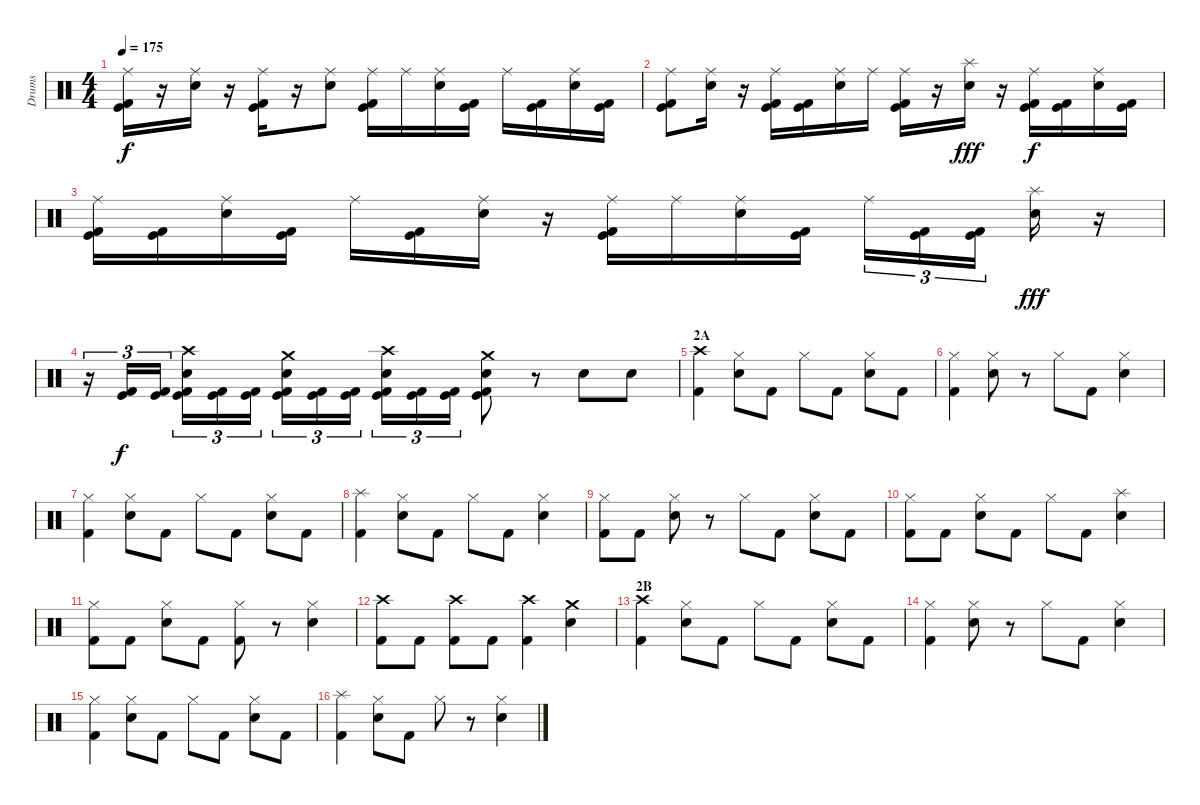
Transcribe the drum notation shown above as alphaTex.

\track ("Drums" "Drums") {instrument percussion}
\staff {score}
\articulation defaults
\ts (4 4)
\tempo 175
\clef neutral
\ks c
("Ride (middle)" "Kick (hit)" "Kick (hit) 2").16{dy f} r.16 ("Ride (middle)" "Electric Snare (hit)").16 r.16 ("Ride (middle)" "Kick (hit)" "Kick (hit) 2").16 r.16 ("Ride (middle)" "Electric Snare (hit)").8 ("Ride (middle)" "Kick (hit)" "Kick (hit) 2").16 "Ride (middle)".16 ("Ride (middle)" "Electric Snare (hit)").16 ("Kick (hit)" "Kick (hit) 2").16 "Ride (middle)".16 ("Kick (hit)" "Kick (hit) 2").16 ("Ride (middle)" "Electric Snare (hit)").16 ("Kick (hit)" "Kick (hit) 2").16 |
("Ride (middle)" "Kick (hit)" "Kick (hit) 2").8 ("Ride (middle)" "Electric Snare (hit)").16 r.16 ("Ride (middle)" "Kick (hit)" "Kick (hit) 2").16 ("Kick (hit)" "Kick (hit) 2").16 ("Ride (middle)" "Electric Snare (hit)").16 "Ride (middle)".16 ("Ride (middle)" "Kick (hit)" "Kick (hit) 2").16 r.16 ("Splash (hit)" "Electric Snare (hit)").16{dy fff} r.16 ("Ride (middle)" "Kick (hit)" "Kick (hit) 2").16{dy f} ("Kick (hit)" "Kick (hit) 2").16 ("Ride (middle)" "Electric Snare (hit)").16 ("Kick (hit)" "Kick (hit) 2").16 |
("Ride (middle)" "Kick (hit)" "Kick (hit) 2").16 ("Kick (hit)" "Kick (hit) 2").16 ("Ride (middle)" "Electric Snare (hit)").16 ("Kick (hit)" "Kick (hit) 2").16 "Ride (middle)".16 ("Kick (hit)" "Kick (hit) 2").16 ("Ride (middle)" "Electric Snare (hit)").16 r.16 ("Ride (middle)" "Kick (hit)" "Kick (hit) 2").16 "Ride (middle)".16 ("Ride (middle)" "Electric Snare (hit)").16 ("Kick (hit)" "Kick (hit) 2").16 "Ride (middle)".16{tu (3 2)} ("Kick (hit)" "Kick (hit) 2").16{tu (3 2)} ("Kick (hit)" "Kick (hit) 2").16{tu (3 2)} ("Splash (hit)" "Electric Snare (hit)").16{dy fff} r.16 |
r.16{tu (3 2)} ("Kick (hit)" "Kick (hit) 2").16{tu (3 2) dy f} ("Kick (hit)" "Kick (hit) 2").16{tu (3 2)} ("Crash high (hit)" "Electric Snare (hit)" "Kick (hit)" "Kick (hit) 2").16{tu (3 2)} ("Kick (hit)" "Kick (hit) 2").16{tu (3 2)} ("Kick (hit)" "Kick (hit) 2").16{tu (3 2)} ("Crash medium (hit)" "Electric Snare (hit)" "Kick (hit)" "Kick (hit) 2").16{tu (3 2)} ("Kick (hit)" "Kick (hit) 2").16{tu (3 2)} ("Kick (hit)" "Kick (hit) 2").16{tu (3 2)} ("Crash high (hit)" "Electric Snare (hit)" "Kick (hit)" "Kick (hit) 2").16{tu (3 2)} ("Kick (hit)" "Kick (hit) 2").16{tu (3 2)} ("Kick (hit)" "Kick (hit) 2").16{tu (3 2)} ("Crash medium (hit)" "Electric Snare (hit)" "Kick (hit)" "Kick (hit) 2").8 r.8 "Electric Snare (hit)".8 "Electric Snare (hit)".8 |
\section ("" "2A")
("Crash high (hit)" "Kick (hit) 2").4{volume 16} ("Hi-Hat (closed)" "Electric Snare (hit)").8 "Kick (hit) 2".8 "Hi-Hat (closed)".8 "Kick (hit) 2".8 ("Hi-Hat (closed)" "Electric Snare (hit)").8 "Kick (hit) 2".8 |
("Hi-Hat (closed)" "Kick (hit) 2").4 ("Hi-Hat (closed)" "Electric Snare (hit)").8 r.8 "Hi-Hat (closed)".8 "Kick (hit) 2".8 ("Hi-Hat (closed)" "Electric Snare (hit)").4 |
("Hi-Hat (closed)" "Kick (hit) 2").4 ("Hi-Hat (closed)" "Electric Snare (hit)").8 "Kick (hit) 2".8 "Hi-Hat (closed)".8 "Kick (hit) 2".8 ("Hi-Hat (closed)" "Electric Snare (hit)").8 "Kick (hit) 2".8 |
("Splash (hit)" "Kick (hit) 2").4 ("Hi-Hat (closed)" "Electric Snare (hit)").8 "Kick (hit) 2".8 "Hi-Hat (closed)".8 "Kick (hit) 2".8 ("Hi-Hat (closed)" "Electric Snare (hit)").4 |
("Hi-Hat (closed)" "Kick (hit) 2").8 "Kick (hit) 2".8 ("Hi-Hat (closed)" "Electric Snare (hit)").8 r.8 "Hi-Hat (closed)".8 "Kick (hit) 2".8 ("Hi-Hat (closed)" "Electric Snare (hit)").8 "Kick (hit) 2".8 |
("Hi-Hat (closed)" "Kick (hit) 2").8 "Kick (hit) 2".8 ("Hi-Hat (closed)" "Electric Snare (hit)").8 "Kick (hit) 2".8 "Hi-Hat (closed)".8 "Kick (hit) 2".8 ("Splash (hit)" "Electric Snare (hit)").4 |
("Hi-Hat (closed)" "Kick (hit) 2").8 "Kick (hit) 2".8 ("Hi-Hat (closed)" "Electric Snare (hit)").8 "Kick (hit) 2".8 ("Hi-Hat (closed)" "Kick (hit) 2").8 r.8 ("Hi-Hat (closed)" "Electric Snare (hit)").4 |
("Crash high (hit)" "Kick (hit) 2").8 "Kick (hit) 2".8 ("Crash high (hit)" "Kick (hit) 2").8 "Kick (hit) 2".8 ("Crash high (hit)" "Kick (hit) 2").4 ("Crash medium (hit)" "Electric Snare (hit)").4 |
\section ("" "2B")
("Crash high (hit)" "Kick (hit) 2").4 ("Hi-Hat (closed)" "Electric Snare (hit)").8 "Kick (hit) 2".8 "Hi-Hat (closed)".8 "Kick (hit) 2".8 ("Hi-Hat (closed)" "Electric Snare (hit)").8 "Kick (hit) 2".8 |
("Hi-Hat (closed)" "Kick (hit) 2").4 ("Hi-Hat (closed)" "Electric Snare (hit)").8 r.8 "Hi-Hat (closed)".8 "Kick (hit) 2".8 ("Hi-Hat (closed)" "Electric Snare (hit)").4 |
("Hi-Hat (closed)" "Kick (hit) 2").4 ("Hi-Hat (closed)" "Electric Snare (hit)").8 "Kick (hit) 2".8 "Hi-Hat (closed)".8 "Kick (hit) 2".8 ("Hi-Hat (closed)" "Electric Snare (hit)").8 "Kick (hit) 2".8 |
("Splash (hit)" "Kick (hit) 2").4 ("Hi-Hat (closed)" "Electric Snare (hit)").8 "Kick (hit) 2".8 "Hi-Hat (closed)".8 r.8 ("Hi-Hat (closed)" "Electric Snare (hit)").4
